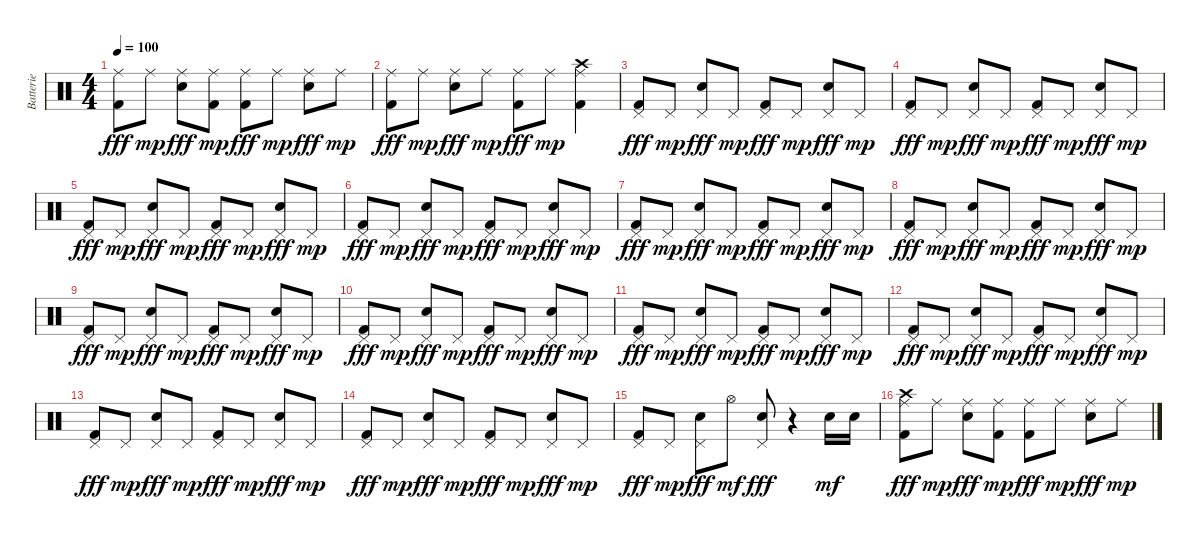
\track ("Batterie" "Batterie") {instrument percussion}
\staff {score}
\articulation defaults
\ts (4 4)
\tempo 100
\clef neutral
\ks c
("Ride (middle)" "Kick (hit) 2").8{dy fff} "Ride (middle)".8{dy mp} ("Ride (middle)" "Electric Snare (hit)").8{dy fff} ("Ride (middle)" "Kick (hit) 2").8{dy mp} ("Ride (middle)" "Kick (hit) 2").8{dy fff} "Ride (middle)".8{dy mp} ("Ride (middle)" "Electric Snare (hit)").8{dy fff} "Ride (middle)".8{dy mp} |
("Ride (middle)" "Kick (hit) 2").8{dy fff} "Ride (middle)".8{dy mp} ("Ride (middle)" "Electric Snare (hit)").8{dy fff} "Ride (middle)".8{dy mp} ("Ride (middle)" "Kick (hit) 2").8{dy fff} "Ride (middle)".8{dy mp} ("Ride (middle)" "Kick (hit) 2" "Crash high (hit)").4 |
("Pedal Hi-Hat (hit)" "Kick (hit) 2").8{dy fff} "Pedal Hi-Hat (hit)".8{dy mp} ("Pedal Hi-Hat (hit)" "Electric Snare (hit)").8{dy fff} "Pedal Hi-Hat (hit)".8{dy mp} ("Pedal Hi-Hat (hit)" "Kick (hit) 2").8{dy fff} "Pedal Hi-Hat (hit)".8{dy mp} ("Pedal Hi-Hat (hit)" "Electric Snare (hit)").8{dy fff} "Pedal Hi-Hat (hit)".8{dy mp} |
("Pedal Hi-Hat (hit)" "Kick (hit) 2").8{dy fff} "Pedal Hi-Hat (hit)".8{dy mp} ("Pedal Hi-Hat (hit)" "Electric Snare (hit)").8{dy fff} "Pedal Hi-Hat (hit)".8{dy mp} ("Pedal Hi-Hat (hit)" "Kick (hit) 2").8{dy fff} "Pedal Hi-Hat (hit)".8{dy mp} ("Pedal Hi-Hat (hit)" "Electric Snare (hit)").8{dy fff} "Pedal Hi-Hat (hit)".8{dy mp} |
("Pedal Hi-Hat (hit)" "Kick (hit) 2").8{dy fff} "Pedal Hi-Hat (hit)".8{dy mp} ("Pedal Hi-Hat (hit)" "Electric Snare (hit)").8{dy fff} "Pedal Hi-Hat (hit)".8{dy mp} ("Pedal Hi-Hat (hit)" "Kick (hit) 2").8{dy fff} "Pedal Hi-Hat (hit)".8{dy mp} ("Pedal Hi-Hat (hit)" "Electric Snare (hit)").8{dy fff} "Pedal Hi-Hat (hit)".8{dy mp} |
("Pedal Hi-Hat (hit)" "Kick (hit) 2").8{dy fff} "Pedal Hi-Hat (hit)".8{dy mp} ("Pedal Hi-Hat (hit)" "Electric Snare (hit)").8{dy fff} "Pedal Hi-Hat (hit)".8{dy mp} ("Pedal Hi-Hat (hit)" "Kick (hit) 2").8{dy fff} "Pedal Hi-Hat (hit)".8{dy mp} ("Pedal Hi-Hat (hit)" "Electric Snare (hit)").8{dy fff} "Pedal Hi-Hat (hit)".8{dy mp} |
("Pedal Hi-Hat (hit)" "Kick (hit) 2").8{dy fff} "Pedal Hi-Hat (hit)".8{dy mp} ("Pedal Hi-Hat (hit)" "Electric Snare (hit)").8{dy fff} "Pedal Hi-Hat (hit)".8{dy mp} ("Pedal Hi-Hat (hit)" "Kick (hit) 2").8{dy fff} "Pedal Hi-Hat (hit)".8{dy mp} ("Pedal Hi-Hat (hit)" "Electric Snare (hit)").8{dy fff} "Pedal Hi-Hat (hit)".8{dy mp} |
("Pedal Hi-Hat (hit)" "Kick (hit) 2").8{dy fff} "Pedal Hi-Hat (hit)".8{dy mp} ("Pedal Hi-Hat (hit)" "Electric Snare (hit)").8{dy fff} "Pedal Hi-Hat (hit)".8{dy mp} ("Pedal Hi-Hat (hit)" "Kick (hit) 2").8{dy fff} "Pedal Hi-Hat (hit)".8{dy mp} ("Pedal Hi-Hat (hit)" "Electric Snare (hit)").8{dy fff} "Pedal Hi-Hat (hit)".8{dy mp} |
("Pedal Hi-Hat (hit)" "Kick (hit) 2").8{dy fff} "Pedal Hi-Hat (hit)".8{dy mp} ("Pedal Hi-Hat (hit)" "Electric Snare (hit)").8{dy fff} "Pedal Hi-Hat (hit)".8{dy mp} ("Pedal Hi-Hat (hit)" "Kick (hit) 2").8{dy fff} "Pedal Hi-Hat (hit)".8{dy mp} ("Pedal Hi-Hat (hit)" "Electric Snare (hit)").8{dy fff} "Pedal Hi-Hat (hit)".8{dy mp} |
("Pedal Hi-Hat (hit)" "Kick (hit) 2").8{dy fff} "Pedal Hi-Hat (hit)".8{dy mp} ("Pedal Hi-Hat (hit)" "Electric Snare (hit)").8{dy fff} "Pedal Hi-Hat (hit)".8{dy mp} ("Pedal Hi-Hat (hit)" "Kick (hit) 2").8{dy fff} "Pedal Hi-Hat (hit)".8{dy mp} ("Pedal Hi-Hat (hit)" "Electric Snare (hit)").8{dy fff} "Pedal Hi-Hat (hit)".8{dy mp} |
("Pedal Hi-Hat (hit)" "Kick (hit) 2").8{dy fff} "Pedal Hi-Hat (hit)".8{dy mp} ("Pedal Hi-Hat (hit)" "Electric Snare (hit)").8{dy fff} "Pedal Hi-Hat (hit)".8{dy mp} ("Pedal Hi-Hat (hit)" "Kick (hit) 2").8{dy fff} "Pedal Hi-Hat (hit)".8{dy mp} ("Pedal Hi-Hat (hit)" "Electric Snare (hit)").8{dy fff} "Pedal Hi-Hat (hit)".8{dy mp} |
("Pedal Hi-Hat (hit)" "Kick (hit) 2").8{dy fff} "Pedal Hi-Hat (hit)".8{dy mp} ("Pedal Hi-Hat (hit)" "Electric Snare (hit)").8{dy fff} "Pedal Hi-Hat (hit)".8{dy mp} ("Pedal Hi-Hat (hit)" "Kick (hit) 2").8{dy fff} "Pedal Hi-Hat (hit)".8{dy mp} ("Pedal Hi-Hat (hit)" "Electric Snare (hit)").8{dy fff} "Pedal Hi-Hat (hit)".8{dy mp} |
("Pedal Hi-Hat (hit)" "Kick (hit) 2").8{dy fff} "Pedal Hi-Hat (hit)".8{dy mp} ("Pedal Hi-Hat (hit)" "Electric Snare (hit)").8{dy fff} "Pedal Hi-Hat (hit)".8{dy mp} ("Pedal Hi-Hat (hit)" "Kick (hit) 2").8{dy fff} "Pedal Hi-Hat (hit)".8{dy mp} ("Pedal Hi-Hat (hit)" "Electric Snare (hit)").8{dy fff} "Pedal Hi-Hat (hit)".8{dy mp} |
("Pedal Hi-Hat (hit)" "Kick (hit) 2").8{dy fff} "Pedal Hi-Hat (hit)".8{dy mp} ("Pedal Hi-Hat (hit)" "Electric Snare (hit)").8{dy fff} "Pedal Hi-Hat (hit)".8{dy mp} ("Pedal Hi-Hat (hit)" "Kick (hit) 2").8{dy fff} "Pedal Hi-Hat (hit)".8{dy mp} ("Pedal Hi-Hat (hit)" "Electric Snare (hit)").8{dy fff} "Pedal Hi-Hat (hit)".8{dy mp} |
("Pedal Hi-Hat (hit)" "Kick (hit) 2").8{dy fff} "Pedal Hi-Hat (hit)".8{dy mp} ("Pedal Hi-Hat (hit)" "Electric Snare (hit)").8{dy fff} "Hi-Hat (open)".8{dy mf} ("Pedal Hi-Hat (hit)" "Electric Snare (hit)").8{dy fff} r.4 "Electric Snare (hit)".16{dy mf} "Electric Snare (hit)".16 |
("Ride (middle)" "Kick (hit) 2" "Crash high (hit)").8{dy fff} "Ride (middle)".8{dy mp} ("Ride (middle)" "Electric Snare (hit)").8{dy fff} ("Ride (middle)" "Kick (hit) 2").8{dy mp} ("Ride (middle)" "Kick (hit) 2").8{dy fff} "Ride (middle)".8{dy mp} ("Ride (middle)" "Electric Snare (hit)").8{dy fff} "Ride (middle)".8{dy mp}
